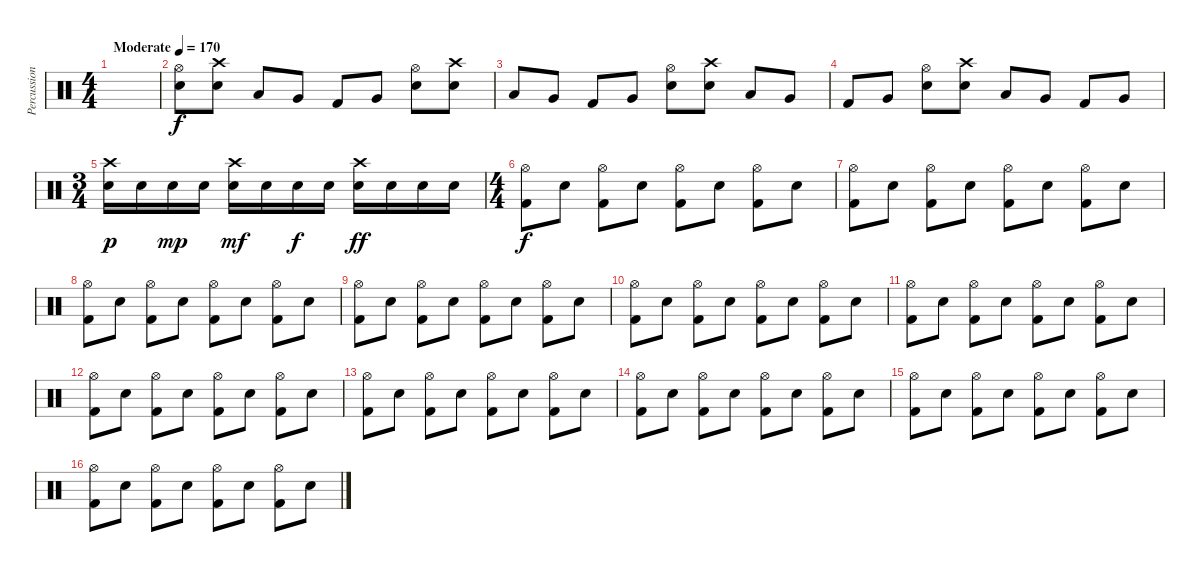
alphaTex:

\track ("Percussion" "Percussion") {instrument percussion}
\staff {score}
\articulation defaults
\ts (4 4)
\tempo (170 "Moderate")
\clef neutral
\ks c
|
("Hi-Hat (open)" "Snare (hit) 2").8 ("Crash high (hit)" "Snare (hit) 2").8 "Low Tom (hit)".8 "Very Low Tom (hit)".8 "Kick (hit) 2".8 "Very Low Tom (hit)".8 ("Hi-Hat (open)" "Snare (hit) 2").8 ("Crash high (hit)" "Snare (hit) 2").8 |
"Low Tom (hit)".8 "Very Low Tom (hit)".8 "Kick (hit) 2".8 "Very Low Tom (hit)".8 ("Hi-Hat (open)" "Snare (hit) 2").8 ("Crash high (hit)" "Snare (hit) 2").8 "Low Tom (hit)".8 "Very Low Tom (hit)".8 |
"Kick (hit) 2".8 "Very Low Tom (hit)".8 ("Hi-Hat (open)" "Snare (hit) 2").8 ("Crash high (hit)" "Snare (hit) 2").8 "Low Tom (hit)".8 "Very Low Tom (hit)".8 "Kick (hit) 2".8 "Very Low Tom (hit)".8 |
\ts (3 4)
("Crash high (hit)" "Snare (hit) 2").16{dy p} "Snare (hit) 2".16 "Snare (hit) 2".16{dy mp} "Snare (hit) 2".16 ("Crash high (hit)" "Snare (hit) 2").16{dy mf} "Snare (hit) 2".16 "Snare (hit) 2".16{dy f} "Snare (hit) 2".16 ("Crash high (hit)" "Snare (hit) 2").16{dy ff} "Snare (hit) 2".16 "Snare (hit) 2".16 "Snare (hit) 2".16 |
\ts (4 4)
("Hi-Hat (open)" "Kick (hit) 2").8{dy f} "Snare (hit) 2".8 ("Hi-Hat (open)" "Kick (hit) 2").8 "Snare (hit) 2".8 ("Hi-Hat (open)" "Kick (hit) 2").8 "Snare (hit) 2".8 ("Hi-Hat (open)" "Kick (hit) 2").8 "Snare (hit) 2".8 |
("Hi-Hat (open)" "Kick (hit) 2").8 "Snare (hit) 2".8 ("Hi-Hat (open)" "Kick (hit) 2").8 "Snare (hit) 2".8 ("Hi-Hat (open)" "Kick (hit) 2").8 "Snare (hit) 2".8 ("Hi-Hat (open)" "Kick (hit) 2").8 "Snare (hit) 2".8 |
("Hi-Hat (open)" "Kick (hit) 2").8 "Snare (hit) 2".8 ("Hi-Hat (open)" "Kick (hit) 2").8 "Snare (hit) 2".8 ("Hi-Hat (open)" "Kick (hit) 2").8 "Snare (hit) 2".8 ("Hi-Hat (open)" "Kick (hit) 2").8 "Snare (hit) 2".8 |
("Hi-Hat (open)" "Kick (hit) 2").8 "Snare (hit) 2".8 ("Hi-Hat (open)" "Kick (hit) 2").8 "Snare (hit) 2".8 ("Hi-Hat (open)" "Kick (hit) 2").8 "Snare (hit) 2".8 ("Hi-Hat (open)" "Kick (hit) 2").8 "Snare (hit) 2".8 |
("Hi-Hat (open)" "Kick (hit) 2").8 "Snare (hit) 2".8 ("Hi-Hat (open)" "Kick (hit) 2").8 "Snare (hit) 2".8 ("Hi-Hat (open)" "Kick (hit) 2").8 "Snare (hit) 2".8 ("Hi-Hat (open)" "Kick (hit) 2").8 "Snare (hit) 2".8 |
("Hi-Hat (open)" "Kick (hit) 2").8 "Snare (hit) 2".8 ("Hi-Hat (open)" "Kick (hit) 2").8 "Snare (hit) 2".8 ("Hi-Hat (open)" "Kick (hit) 2").8 "Snare (hit) 2".8 ("Hi-Hat (open)" "Kick (hit) 2").8 "Snare (hit) 2".8 |
("Hi-Hat (open)" "Kick (hit) 2").8 "Snare (hit) 2".8 ("Hi-Hat (open)" "Kick (hit) 2").8 "Snare (hit) 2".8 ("Hi-Hat (open)" "Kick (hit) 2").8 "Snare (hit) 2".8 ("Hi-Hat (open)" "Kick (hit) 2").8 "Snare (hit) 2".8 |
("Hi-Hat (open)" "Kick (hit) 2").8 "Snare (hit) 2".8 ("Hi-Hat (open)" "Kick (hit) 2").8 "Snare (hit) 2".8 ("Hi-Hat (open)" "Kick (hit) 2").8 "Snare (hit) 2".8 ("Hi-Hat (open)" "Kick (hit) 2").8 "Snare (hit) 2".8 |
("Hi-Hat (open)" "Kick (hit) 2").8 "Snare (hit) 2".8 ("Hi-Hat (open)" "Kick (hit) 2").8 "Snare (hit) 2".8 ("Hi-Hat (open)" "Kick (hit) 2").8 "Snare (hit) 2".8 ("Hi-Hat (open)" "Kick (hit) 2").8 "Snare (hit) 2".8 |
("Hi-Hat (open)" "Kick (hit) 2").8 "Snare (hit) 2".8 ("Hi-Hat (open)" "Kick (hit) 2").8 "Snare (hit) 2".8 ("Hi-Hat (open)" "Kick (hit) 2").8 "Snare (hit) 2".8 ("Hi-Hat (open)" "Kick (hit) 2").8 "Snare (hit) 2".8 |
("Hi-Hat (open)" "Kick (hit) 2").8 "Snare (hit) 2".8 ("Hi-Hat (open)" "Kick (hit) 2").8 "Snare (hit) 2".8 ("Hi-Hat (open)" "Kick (hit) 2").8 "Snare (hit) 2".8 ("Hi-Hat (open)" "Kick (hit) 2").8 "Snare (hit) 2".8
